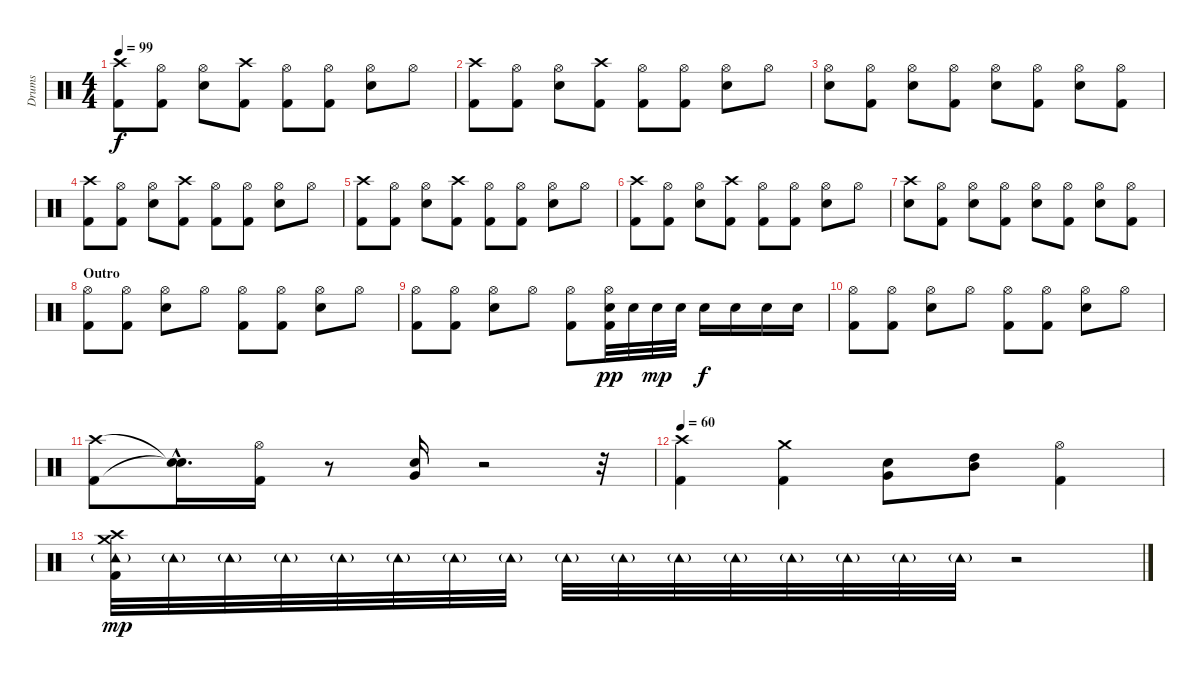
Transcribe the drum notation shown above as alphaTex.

\track ("Drums " "Drums ") {instrument percussion}
\staff {score}
\articulation defaults
\ts (4 4)
\tempo 99
\clef neutral
\ks c
("Crash high (hit)" "Kick (hit) 2").8{dy f} ("Hi-Hat (open)" "Kick (hit) 2").8 ("Hi-Hat (open)" "Snare (hit) 2").8 ("Crash high (hit)" "Kick (hit) 2").8 ("Hi-Hat (open)" "Kick (hit) 2").8 ("Hi-Hat (open)" "Kick (hit) 2").8 ("Hi-Hat (open)" "Snare (hit) 2").8 "Hi-Hat (open)".8 |
("Crash high (hit)" "Kick (hit) 2").8 ("Hi-Hat (open)" "Kick (hit) 2").8 ("Hi-Hat (open)" "Snare (hit) 2").8 ("Crash high (hit)" "Kick (hit) 2").8 ("Hi-Hat (open)" "Kick (hit) 2").8 ("Hi-Hat (open)" "Kick (hit) 2").8 ("Hi-Hat (open)" "Snare (hit) 2").8 "Hi-Hat (open)".8 |
("Hi-Hat (open)" "Snare (hit) 2").8 ("Hi-Hat (open)" "Kick (hit) 2").8 ("Hi-Hat (open)" "Snare (hit) 2").8 ("Hi-Hat (open)" "Kick (hit) 2").8 ("Hi-Hat (open)" "Snare (hit) 2").8 ("Hi-Hat (open)" "Kick (hit) 2").8 ("Hi-Hat (open)" "Snare (hit) 2").8 ("Hi-Hat (open)" "Kick (hit) 2").8 |
("Crash high (hit)" "Kick (hit) 2").8 ("Hi-Hat (open)" "Kick (hit) 2").8 ("Hi-Hat (open)" "Snare (hit) 2").8 ("Crash high (hit)" "Kick (hit) 2").8 ("Hi-Hat (open)" "Kick (hit) 2").8 ("Hi-Hat (open)" "Kick (hit) 2").8 ("Hi-Hat (open)" "Snare (hit) 2").8 "Hi-Hat (open)".8 |
("Crash high (hit)" "Kick (hit) 2").8 ("Hi-Hat (open)" "Kick (hit) 2").8 ("Hi-Hat (open)" "Snare (hit) 2").8 ("Crash high (hit)" "Kick (hit) 2").8 ("Hi-Hat (open)" "Kick (hit) 2").8 ("Hi-Hat (open)" "Kick (hit) 2").8 ("Hi-Hat (open)" "Snare (hit) 2").8 "Hi-Hat (open)".8 |
("Crash high (hit)" "Kick (hit) 2").8 ("Hi-Hat (open)" "Kick (hit) 2").8 ("Hi-Hat (open)" "Snare (hit) 2").8 ("Crash high (hit)" "Kick (hit) 2").8 ("Hi-Hat (open)" "Kick (hit) 2").8 ("Hi-Hat (open)" "Kick (hit) 2").8 ("Hi-Hat (open)" "Snare (hit) 2").8 "Hi-Hat (open)".8 |
("Crash high (hit)" "Snare (hit) 2").8 ("Hi-Hat (open)" "Kick (hit) 2").8 ("Hi-Hat (open)" "Snare (hit) 2").8 ("Hi-Hat (open)" "Kick (hit) 2").8 ("Hi-Hat (open)" "Snare (hit) 2").8 ("Hi-Hat (open)" "Kick (hit) 2").8 ("Hi-Hat (open)" "Snare (hit) 2").8 ("Hi-Hat (open)" "Kick (hit) 2").8 |
\section ("" "Outro")
("Hi-Hat (open)" "Kick (hit) 2").8 ("Hi-Hat (open)" "Kick (hit) 2").8 ("Hi-Hat (open)" "Snare (hit) 2").8 "Hi-Hat (open)".8 ("Hi-Hat (open)" "Kick (hit) 2").8 ("Hi-Hat (open)" "Kick (hit) 2").8 ("Hi-Hat (open)" "Snare (hit) 2").8 "Hi-Hat (open)".8 |
("Hi-Hat (open)" "Kick (hit) 2").8 ("Hi-Hat (open)" "Kick (hit) 2").8 ("Hi-Hat (open)" "Snare (hit) 2").8 "Hi-Hat (open)".8 ("Hi-Hat (open)" "Kick (hit) 2").8 ("Hi-Hat (open)" "Snare (hit) 2" "Kick (hit) 2").32{dy pp} "Snare (hit) 2".32 "Snare (hit) 2".32{dy mp} "Snare (hit) 2".32 "Snare (hit) 2".16{dy f} "Snare (hit) 2".16 "Snare (hit) 2".16 "Snare (hit) 2".16 |
("Hi-Hat (open)" "Kick (hit) 2").8 ("Hi-Hat (open)" "Kick (hit) 2").8 ("Hi-Hat (open)" "Snare (hit) 2").8 "Hi-Hat (open)".8 ("Hi-Hat (open)" "Kick (hit) 2").8 ("Hi-Hat (open)" "Kick (hit) 2").8 ("Hi-Hat (open)" "Snare (hit) 2").8 "Hi-Hat (open)".8 |
("Crash high (hit)" "Kick (hit) 2").8 ("Snare (hit)"{hac t} "Snare (hit)"{hac t}).16{d} ("Hi-Hat (open)" "Kick (hit) 2").16 r.8 ("Snare (hit) 2" "Very Low Tom (hit)").16 r.2 r.32 |
\tempo 60
("Crash high (hit)" "Kick (hit) 2").4 ("Crash medium (hit)" "Kick (hit) 2").4 ("Snare (hit) 2" "Very Low Tom (hit)").8 ("Mid Tom (hit)" "High Tom (hit)").8 ("Hi-Hat (open)" "Kick (hit) 2").4 |
("Crash high (hit)" "Crash medium (hit)" "Kick (hit) 2" "Tambourine (hit)"{g}).32{dy mp} "Tambourine (hit)"{g}.32{volume 6} "Tambourine (hit)"{g}.32 "Tambourine (hit)"{g}.32 "Tambourine (hit)"{g}.32 "Tambourine (hit)"{g}.32 "Tambourine (hit)"{g}.32 "Tambourine (hit)"{g}.32 "Tambourine (hit)"{g}.32 "Tambourine (hit)"{g}.32 "Tambourine (hit)"{g}.32 "Tambourine (hit)"{g}.32 "Tambourine (hit)"{g}.32 "Tambourine (hit)"{g}.32 "Tambourine (hit)"{g}.32 "Tambourine (hit)"{g}.32 r.2
